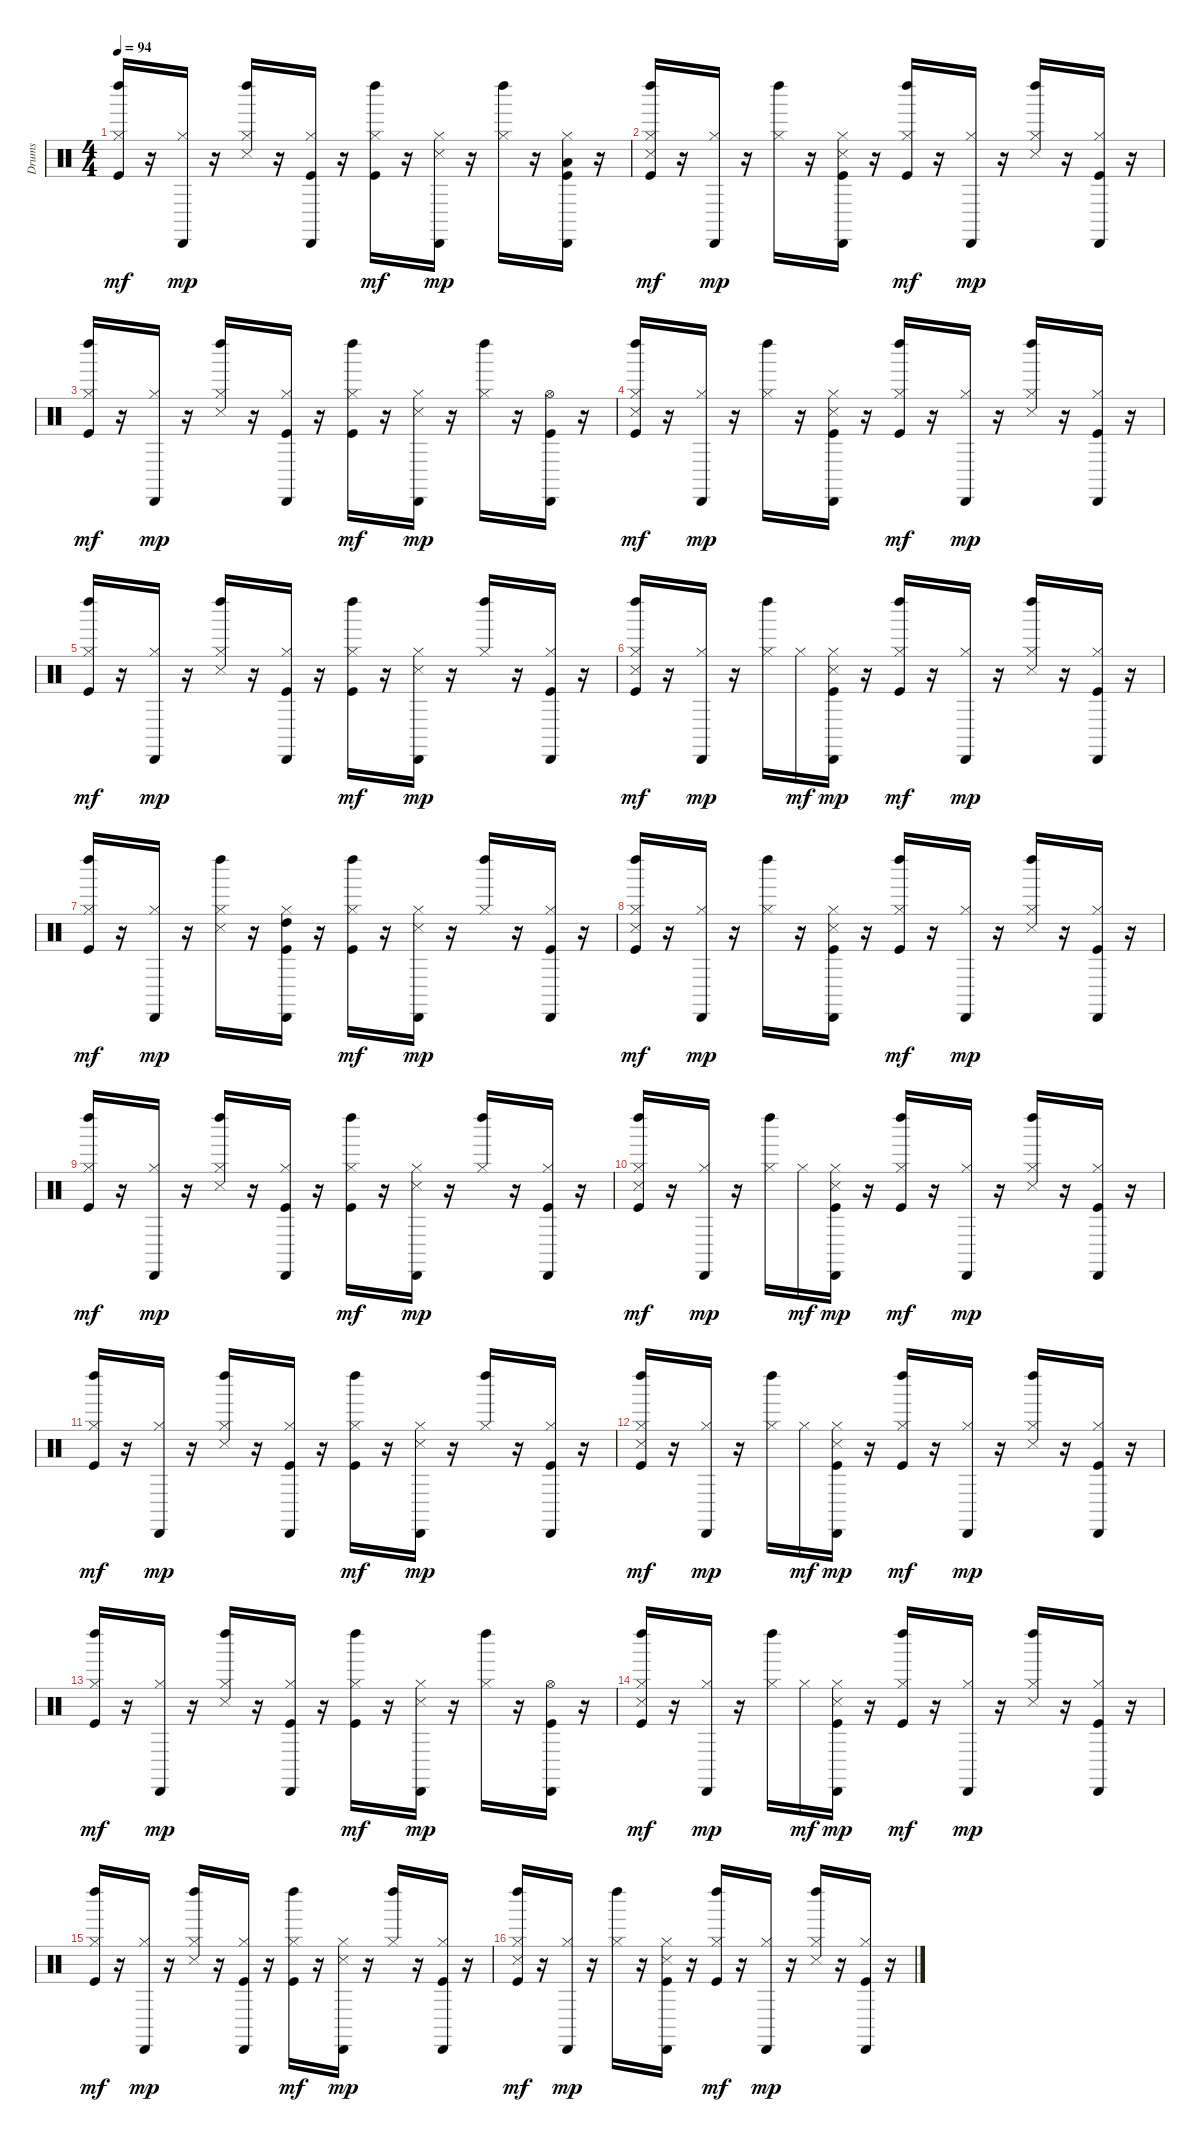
\track ("Drums" "Drums") {instrument percussion}
\staff {score}
\articulation defaults
\ts (4 4)
\tempo 94
\clef neutral
\ks c
("Left Maraca (hit)" "Hi-Hat (closed)" "Kick (hit)").16{dy mf} r.16 ("Cabasa (hit)" "Hi-Hat (closed)").16{dy mp} r.16 ("Left Maraca (hit)" "Hi-Hat (closed)" "Snare (side stick) 3").16 r.16 ("Cabasa (hit)" "Hi-Hat (closed)" "Kick (hit)").16 r.16 ("Left Maraca (hit)" "Hi-Hat (closed)" "Kick (hit)").16{dy mf} r.16 ("Cabasa (hit)" "Hi-Hat (closed)" "Snare (side stick) 3").16{dy mp} r.16 ("Left Maraca (hit)" "Hi-Hat (closed)").16 r.16 ("Cabasa (hit)" "Low Tom (hit)" "Hi-Hat (closed)" "Kick (hit)").16 r.16 |
("Left Maraca (hit)" "Hi-Hat (closed)" "Snare (side stick) 3" "Kick (hit)").16{dy mf} r.16 ("Cabasa (hit)" "Hi-Hat (closed)").16{dy mp} r.16 ("Left Maraca (hit)" "Hi-Hat (closed)").16 r.16 ("Cabasa (hit)" "Hi-Hat (closed)" "Snare (side stick) 3" "Kick (hit)").16 r.16 ("Left Maraca (hit)" "Hi-Hat (closed)" "Kick (hit)").16{dy mf} r.16 ("Cabasa (hit)" "Hi-Hat (closed)").16{dy mp} r.16 ("Left Maraca (hit)" "Hi-Hat (closed)" "Snare (side stick) 3").16 r.16 ("Cabasa (hit)" "Hi-Hat (closed)" "Kick (hit)").16 r.16 |
("Left Maraca (hit)" "Hi-Hat (closed)" "Kick (hit)").16{dy mf} r.16 ("Cabasa (hit)" "Hi-Hat (closed)").16{dy mp} r.16 ("Left Maraca (hit)" "Hi-Hat (closed)" "Snare (side stick) 3").16 r.16 ("Cabasa (hit)" "Hi-Hat (closed)" "Kick (hit)").16 r.16 ("Left Maraca (hit)" "Hi-Hat (closed)" "Kick (hit)").16{dy mf} r.16 ("Cabasa (hit)" "Hi-Hat (closed)" "Snare (side stick) 3").16{dy mp} r.16 ("Left Maraca (hit)" "Hi-Hat (closed)").16 r.16 ("Cabasa (hit)" "Hi-Hat (open)" "Kick (hit)").16 r.16 |
("Left Maraca (hit)" "Hi-Hat (closed)" "Snare (side stick) 3" "Kick (hit)").16{dy mf} r.16 ("Cabasa (hit)" "Hi-Hat (closed)").16{dy mp} r.16 ("Left Maraca (hit)" "Hi-Hat (closed)").16 r.16 ("Cabasa (hit)" "Hi-Hat (closed)" "Snare (side stick) 3" "Kick (hit)").16 r.16 ("Left Maraca (hit)" "Hi-Hat (closed)" "Kick (hit)").16{dy mf} r.16 ("Cabasa (hit)" "Hi-Hat (closed)").16{dy mp} r.16 ("Left Maraca (hit)" "Hi-Hat (closed)" "Snare (side stick) 3").16 r.16 ("Cabasa (hit)" "Hi-Hat (closed)" "Kick (hit)").16 r.16 |
("Left Maraca (hit)" "Hi-Hat (closed)" "Kick (hit)").16{dy mf} r.16 ("Cabasa (hit)" "Hi-Hat (closed)").16{dy mp} r.16 ("Left Maraca (hit)" "Hi-Hat (closed)" "Snare (side stick) 3").16 r.16 ("Cabasa (hit)" "Hi-Hat (closed)" "Kick (hit)").16 r.16 ("Left Maraca (hit)" "Hi-Hat (closed)" "Kick (hit)").16{dy mf} r.16 ("Cabasa (hit)" "Hi-Hat (closed)" "Snare (side stick) 3").16{dy mp} r.16 ("Left Maraca (hit)" "Hi-Hat (closed)").16 r.16 ("Cabasa (hit)" "Hi-Hat (closed)" "Kick (hit)").16 r.16 |
("Left Maraca (hit)" "Hi-Hat (closed)" "Snare (side stick) 3" "Kick (hit)").16{dy mf} r.16 ("Cabasa (hit)" "Hi-Hat (closed)").16{dy mp} r.16 ("Left Maraca (hit)" "Hi-Hat (closed)").16 "Hi-Hat (closed)".16{dy mf} ("Cabasa (hit)" "Hi-Hat (closed)" "Snare (side stick) 3" "Kick (hit)").16{dy mp} r.16 ("Left Maraca (hit)" "Hi-Hat (closed)" "Kick (hit)").16{dy mf} r.16 ("Cabasa (hit)" "Hi-Hat (closed)").16{dy mp} r.16 ("Left Maraca (hit)" "Hi-Hat (closed)" "Snare (side stick) 3").16 r.16 ("Cabasa (hit)" "Hi-Hat (closed)" "Kick (hit)").16 r.16 |
("Left Maraca (hit)" "Hi-Hat (closed)" "Kick (hit)").16{dy mf} r.16 ("Cabasa (hit)" "Hi-Hat (closed)").16{dy mp} r.16 ("Left Maraca (hit)" "Hi-Hat (closed)" "Snare (side stick) 3").16 r.16 ("Cabasa (hit)" "High Tom (hit)" "Hi-Hat (closed)" "Kick (hit)").16 r.16 ("Left Maraca (hit)" "Hi-Hat (closed)" "Kick (hit)").16{dy mf} r.16 ("Cabasa (hit)" "Hi-Hat (closed)" "Snare (side stick) 3").16{dy mp} r.16 ("Left Maraca (hit)" "Hi-Hat (closed)").16 r.16 ("Cabasa (hit)" "Hi-Hat (closed)" "Kick (hit)").16 r.16 |
("Left Maraca (hit)" "Hi-Hat (closed)" "Snare (side stick) 3" "Kick (hit)").16{dy mf} r.16 ("Cabasa (hit)" "Hi-Hat (closed)").16{dy mp} r.16 ("Left Maraca (hit)" "Hi-Hat (closed)").16 r.16 ("Cabasa (hit)" "Hi-Hat (closed)" "Snare (side stick) 3" "Kick (hit)").16 r.16 ("Left Maraca (hit)" "Hi-Hat (closed)" "Kick (hit)").16{dy mf} r.16 ("Cabasa (hit)" "Hi-Hat (closed)").16{dy mp} r.16 ("Left Maraca (hit)" "Hi-Hat (closed)" "Snare (side stick) 3").16 r.16 ("Cabasa (hit)" "Hi-Hat (closed)" "Kick (hit)").16 r.16 |
("Left Maraca (hit)" "Hi-Hat (closed)" "Kick (hit)").16{dy mf} r.16 ("Cabasa (hit)" "Hi-Hat (closed)").16{dy mp} r.16 ("Left Maraca (hit)" "Hi-Hat (closed)" "Snare (side stick) 3").16 r.16 ("Cabasa (hit)" "Hi-Hat (closed)" "Kick (hit)").16 r.16 ("Left Maraca (hit)" "Hi-Hat (closed)" "Kick (hit)").16{dy mf} r.16 ("Cabasa (hit)" "Hi-Hat (closed)" "Snare (side stick) 3").16{dy mp} r.16 ("Left Maraca (hit)" "Hi-Hat (closed)").16 r.16 ("Cabasa (hit)" "Hi-Hat (closed)" "Kick (hit)").16 r.16 |
("Left Maraca (hit)" "Hi-Hat (closed)" "Snare (side stick) 3" "Kick (hit)").16{dy mf} r.16 ("Cabasa (hit)" "Hi-Hat (closed)").16{dy mp} r.16 ("Left Maraca (hit)" "Hi-Hat (closed)").16 "Hi-Hat (closed)".16{dy mf} ("Cabasa (hit)" "Hi-Hat (closed)" "Snare (side stick) 3" "Kick (hit)").16{dy mp} r.16 ("Left Maraca (hit)" "Hi-Hat (closed)" "Kick (hit)").16{dy mf} r.16 ("Cabasa (hit)" "Hi-Hat (closed)").16{dy mp} r.16 ("Left Maraca (hit)" "Hi-Hat (closed)" "Snare (side stick) 3").16 r.16 ("Cabasa (hit)" "Hi-Hat (closed)" "Kick (hit)").16 r.16 |
("Left Maraca (hit)" "Hi-Hat (closed)" "Kick (hit)").16{dy mf} r.16 ("Cabasa (hit)" "Hi-Hat (closed)").16{dy mp} r.16 ("Left Maraca (hit)" "Hi-Hat (closed)" "Snare (side stick) 3").16 r.16 ("Cabasa (hit)" "Hi-Hat (closed)" "Kick (hit)").16 r.16 ("Left Maraca (hit)" "Hi-Hat (closed)" "Kick (hit)").16{dy mf} r.16 ("Cabasa (hit)" "Hi-Hat (closed)" "Snare (side stick) 3").16{dy mp} r.16 ("Left Maraca (hit)" "Hi-Hat (closed)").16 r.16 ("Cabasa (hit)" "Hi-Hat (closed)" "Kick (hit)").16 r.16 |
("Left Maraca (hit)" "Hi-Hat (closed)" "Snare (side stick) 3" "Kick (hit)").16{dy mf} r.16 ("Cabasa (hit)" "Hi-Hat (closed)").16{dy mp} r.16 ("Left Maraca (hit)" "Hi-Hat (closed)").16 "Hi-Hat (closed)".16{dy mf} ("Cabasa (hit)" "Hi-Hat (closed)" "Snare (side stick) 3" "Kick (hit)").16{dy mp} r.16 ("Left Maraca (hit)" "Hi-Hat (closed)" "Kick (hit)").16{dy mf} r.16 ("Cabasa (hit)" "Hi-Hat (closed)").16{dy mp} r.16 ("Left Maraca (hit)" "Hi-Hat (closed)" "Snare (side stick) 3").16 r.16 ("Cabasa (hit)" "Hi-Hat (closed)" "Kick (hit)").16 r.16 |
("Left Maraca (hit)" "Hi-Hat (closed)" "Kick (hit)").16{dy mf} r.16 ("Cabasa (hit)" "Hi-Hat (closed)").16{dy mp} r.16 ("Left Maraca (hit)" "Hi-Hat (closed)" "Snare (side stick) 3").16 r.16 ("Cabasa (hit)" "Hi-Hat (closed)" "Kick (hit)").16 r.16 ("Left Maraca (hit)" "Hi-Hat (closed)" "Kick (hit)").16{dy mf} r.16 ("Cabasa (hit)" "Hi-Hat (closed)" "Snare (side stick) 3").16{dy mp} r.16 ("Left Maraca (hit)" "Hi-Hat (closed)").16 r.16 ("Cabasa (hit)" "Hi-Hat (open)" "Kick (hit)").16 r.16 |
("Left Maraca (hit)" "Hi-Hat (closed)" "Snare (side stick) 3" "Kick (hit)").16{dy mf} r.16 ("Cabasa (hit)" "Hi-Hat (closed)").16{dy mp} r.16 ("Left Maraca (hit)" "Hi-Hat (closed)").16 "Hi-Hat (closed)".16{dy mf} ("Cabasa (hit)" "Hi-Hat (closed)" "Snare (side stick) 3" "Kick (hit)").16{dy mp} r.16 ("Left Maraca (hit)" "Hi-Hat (closed)" "Kick (hit)").16{dy mf} r.16 ("Cabasa (hit)" "Hi-Hat (closed)").16{dy mp} r.16 ("Left Maraca (hit)" "Hi-Hat (closed)" "Snare (side stick) 3").16 r.16 ("Cabasa (hit)" "Hi-Hat (closed)" "Kick (hit)").16 r.16 |
("Left Maraca (hit)" "Hi-Hat (closed)" "Kick (hit)").16{dy mf} r.16 ("Cabasa (hit)" "Hi-Hat (closed)").16{dy mp} r.16 ("Left Maraca (hit)" "Hi-Hat (closed)" "Snare (side stick) 3").16 r.16 ("Cabasa (hit)" "Hi-Hat (closed)" "Kick (hit)").16 r.16 ("Left Maraca (hit)" "Hi-Hat (closed)" "Kick (hit)").16{dy mf} r.16 ("Cabasa (hit)" "Hi-Hat (closed)" "Snare (side stick) 3").16{dy mp} r.16 ("Left Maraca (hit)" "Hi-Hat (closed)").16 r.16 ("Cabasa (hit)" "Hi-Hat (closed)" "Kick (hit)").16 r.16 |
("Left Maraca (hit)" "Hi-Hat (closed)" "Snare (side stick) 3" "Kick (hit)").16{dy mf} r.16 ("Cabasa (hit)" "Hi-Hat (closed)").16{dy mp} r.16 ("Left Maraca (hit)" "Hi-Hat (closed)").16 r.16 ("Cabasa (hit)" "Hi-Hat (closed)" "Snare (side stick) 3" "Kick (hit)").16 r.16 ("Left Maraca (hit)" "Hi-Hat (closed)" "Kick (hit)").16{dy mf} r.16 ("Cabasa (hit)" "Hi-Hat (closed)").16{dy mp} r.16 ("Left Maraca (hit)" "Hi-Hat (closed)" "Snare (side stick) 3").16 r.16 ("Cabasa (hit)" "Hi-Hat (closed)" "Kick (hit)").16 r.16
